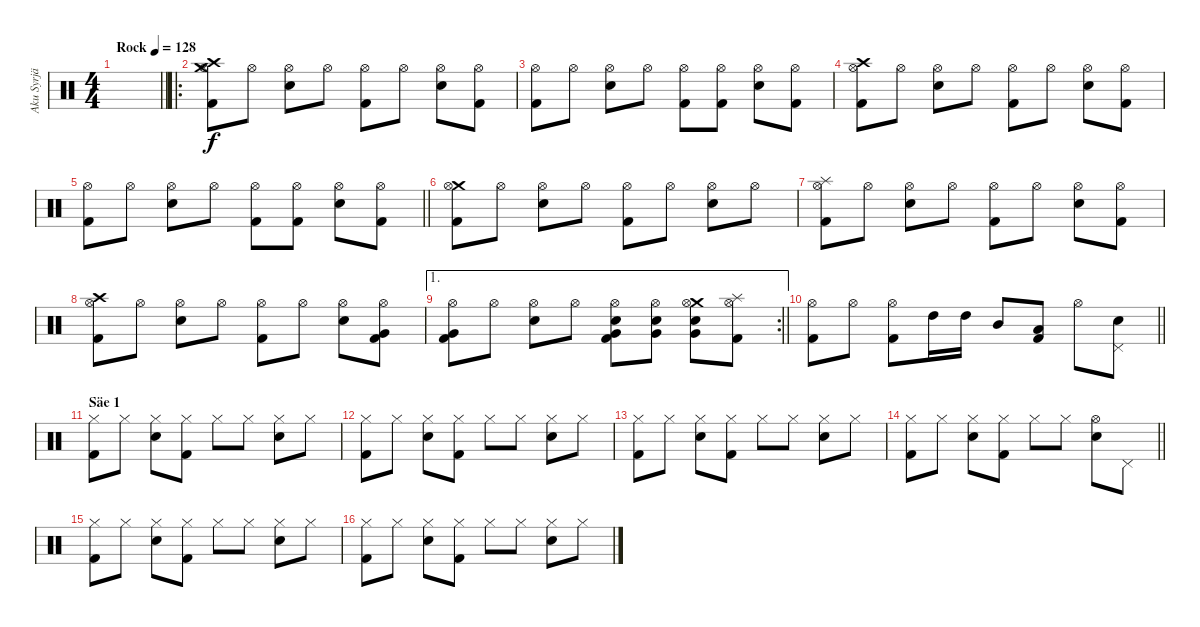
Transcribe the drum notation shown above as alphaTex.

\track ("Aku Syrjä" "Aku Syrjä") {instrument percussion}
\staff {score}
\articulation defaults
\ts (4 4)
\tempo (128 "Rock")
\clef neutral
\barLineRight lightlight
\ks c
|
\ro
("Crash high (hit)" "Crash medium (hit)" "Hi-Hat (open)" "Kick (hit) 2").8 "Hi-Hat (open)".8 ("Hi-Hat (open)" "Electric Snare (hit)").8 "Hi-Hat (open)".8 ("Hi-Hat (open)" "Kick (hit) 2").8 "Hi-Hat (open)".8 ("Hi-Hat (open)" "Electric Snare (hit)").8 ("Hi-Hat (open)" "Kick (hit) 2").8 |
("Hi-Hat (open)" "Kick (hit) 2").8 "Hi-Hat (open)".8 ("Hi-Hat (open)" "Electric Snare (hit)").8 "Hi-Hat (open)".8 ("Hi-Hat (open)" "Kick (hit) 2").8 ("Hi-Hat (open)" "Kick (hit) 2").8 ("Hi-Hat (open)" "Electric Snare (hit)").8 ("Hi-Hat (open)" "Kick (hit) 2").8 |
("Crash high (hit)" "Hi-Hat (open)" "Kick (hit) 2").8 "Hi-Hat (open)".8 ("Hi-Hat (open)" "Electric Snare (hit)").8 "Hi-Hat (open)".8 ("Hi-Hat (open)" "Kick (hit) 2").8 "Hi-Hat (open)".8 ("Hi-Hat (open)" "Electric Snare (hit)").8 ("Hi-Hat (open)" "Kick (hit) 2").8 |
\barLineRight lightlight
("Hi-Hat (open)" "Kick (hit) 2").8 "Hi-Hat (open)".8 ("Hi-Hat (open)" "Electric Snare (hit)").8 "Hi-Hat (open)".8 ("Hi-Hat (open)" "Kick (hit) 2").8 ("Hi-Hat (open)" "Kick (hit) 2").8 ("Hi-Hat (open)" "Electric Snare (hit)").8 ("Hi-Hat (open)" "Kick (hit) 2").8 |
("Crash medium (hit)" "Hi-Hat (open)" "Kick (hit) 2").8 "Hi-Hat (open)".8 ("Hi-Hat (open)" "Electric Snare (hit)").8 "Hi-Hat (open)".8 ("Hi-Hat (open)" "Kick (hit) 2").8 "Hi-Hat (open)".8 ("Hi-Hat (open)" "Electric Snare (hit)").8 "Hi-Hat (open)".8 |
("Splash (hit)" "Hi-Hat (open)" "Kick (hit) 2").8 "Hi-Hat (open)".8 ("Hi-Hat (open)" "Electric Snare (hit)").8 "Hi-Hat (open)".8 ("Hi-Hat (open)" "Kick (hit) 2").8 "Hi-Hat (open)".8 ("Hi-Hat (open)" "Electric Snare (hit)").8 ("Hi-Hat (open)" "Kick (hit) 2").8 |
("Crash high (hit)" "Hi-Hat (open)" "Kick (hit) 2").8 "Hi-Hat (open)".8 ("Hi-Hat (open)" "Electric Snare (hit)").8 "Hi-Hat (open)".8 ("Hi-Hat (open)" "Kick (hit) 2").8 "Hi-Hat (open)".8 ("Hi-Hat (open)" "Electric Snare (hit)").8 ("Very Low Tom (hit)" "Hi-Hat (open)" "Kick (hit) 2").8 |
\ae 1
\rc 2
\barLineRight lightlight
("Very Low Tom (hit)" "Hi-Hat (open)" "Kick (hit) 2").8 "Hi-Hat (open)".8 ("Hi-Hat (open)" "Electric Snare (hit)").8 "Hi-Hat (open)".8 ("Very Low Tom (hit)" "Hi-Hat (open)" "Electric Snare (hit)" "Kick (hit) 2").8 ("Very Low Tom (hit)" "Hi-Hat (open)" "Electric Snare (hit)").8 ("Crash medium (hit)" "Very Low Tom (hit)" "Hi-Hat (open)" "Electric Snare (hit)").8 ("Splash (hit)" "Hi-Hat (open)" "Kick (hit) 2").8 |
\barLineRight lightlight
("Hi-Hat (open)" "Kick (hit) 2").8 "Hi-Hat (open)".8 ("Hi-Hat (open)" "Kick (hit) 2").8 "High Tom (hit)".16 "High Tom (hit)".16 "Mid Tom (hit)".8 ("Low Tom (hit)" "Kick (hit) 2").8 "Hi-Hat (open)".8 ("Pedal Hi-Hat (hit)" "Electric Snare (hit)").8 |
\section ("" "Säe 1")
("Hi-Hat (closed)" "Kick (hit) 2").8 "Hi-Hat (closed)".8 ("Hi-Hat (closed)" "Electric Snare (hit)").8 ("Hi-Hat (closed)" "Kick (hit) 2").8 "Hi-Hat (closed)".8 "Hi-Hat (closed)".8 ("Hi-Hat (closed)" "Electric Snare (hit)").8 "Hi-Hat (closed)".8 |
("Hi-Hat (closed)" "Kick (hit) 2").8 "Hi-Hat (closed)".8 ("Hi-Hat (closed)" "Electric Snare (hit)").8 ("Hi-Hat (closed)" "Kick (hit) 2").8 "Hi-Hat (closed)".8 "Hi-Hat (closed)".8 ("Hi-Hat (closed)" "Electric Snare (hit)").8 "Hi-Hat (closed)".8 |
("Hi-Hat (closed)" "Kick (hit) 2").8 "Hi-Hat (closed)".8 ("Hi-Hat (closed)" "Electric Snare (hit)").8 ("Hi-Hat (closed)" "Kick (hit) 2").8 "Hi-Hat (closed)".8 "Hi-Hat (closed)".8 ("Hi-Hat (closed)" "Electric Snare (hit)").8 "Hi-Hat (closed)".8 |
\barLineRight lightlight
("Hi-Hat (closed)" "Kick (hit) 2").8 "Hi-Hat (closed)".8 ("Hi-Hat (closed)" "Electric Snare (hit)").8 ("Hi-Hat (closed)" "Kick (hit) 2").8 "Hi-Hat (closed)".8 "Hi-Hat (closed)".8 ("Hi-Hat (open)" "Electric Snare (hit)").8 "Pedal Hi-Hat (hit)".8 |
("Hi-Hat (closed)" "Kick (hit) 2").8 "Hi-Hat (closed)".8 ("Hi-Hat (closed)" "Electric Snare (hit)").8 ("Hi-Hat (closed)" "Kick (hit) 2").8 "Hi-Hat (closed)".8 "Hi-Hat (closed)".8 ("Hi-Hat (closed)" "Electric Snare (hit)").8 "Hi-Hat (closed)".8 |
("Hi-Hat (closed)" "Kick (hit) 2").8 "Hi-Hat (closed)".8 ("Hi-Hat (closed)" "Electric Snare (hit)").8 ("Hi-Hat (closed)" "Kick (hit) 2").8 "Hi-Hat (closed)".8 "Hi-Hat (closed)".8 ("Hi-Hat (closed)" "Electric Snare (hit)").8 "Hi-Hat (closed)".8
